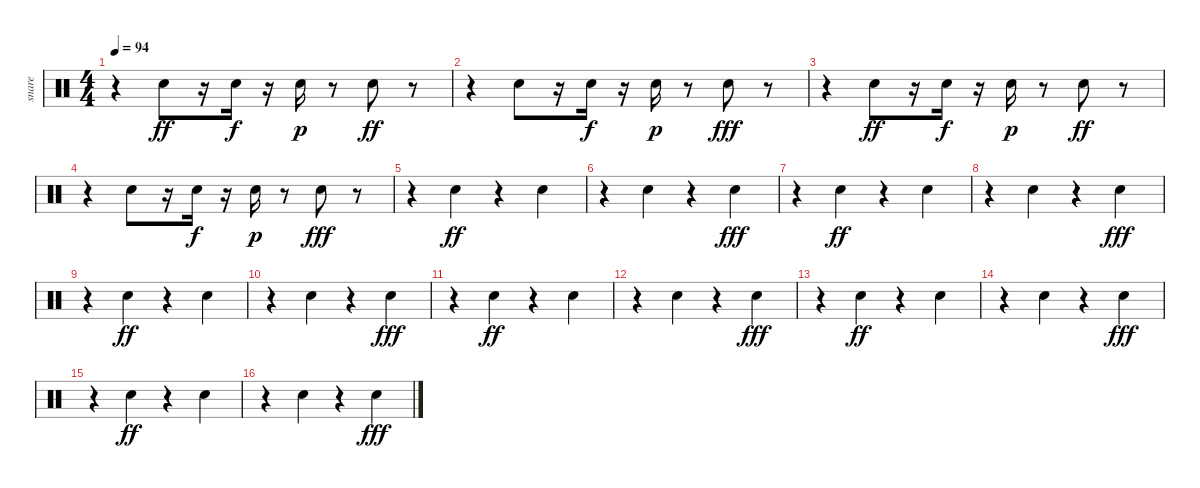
\track ("snare" "snare") {instrument percussion}
\staff {score}
\articulation defaults
\ts (4 4)
\tempo 94
\clef neutral
\ks c
r.4{dy ff} "Electric Snare (hit)".8 r.16 "Electric Snare (hit)".16{dy f} r.16 "Electric Snare (hit)".16{dy p} r.8 "Electric Snare (hit)".8{dy ff} r.8 |
r.4 "Electric Snare (hit)".8 r.16 "Electric Snare (hit)".16{dy f} r.16 "Electric Snare (hit)".16{dy p} r.8 "Electric Snare (hit)".8{dy fff} r.8 |
r.4 "Electric Snare (hit)".8{dy ff} r.16 "Electric Snare (hit)".16{dy f} r.16 "Electric Snare (hit)".16{dy p} r.8 "Electric Snare (hit)".8{dy ff} r.8 |
r.4 "Electric Snare (hit)".8 r.16 "Electric Snare (hit)".16{dy f} r.16 "Electric Snare (hit)".16{dy p} r.8 "Electric Snare (hit)".8{dy fff} r.8 |
r.4 "Electric Snare (hit)".4{dy ff} r.4 "Electric Snare (hit)".4 |
r.4 "Electric Snare (hit)".4 r.4 "Electric Snare (hit)".4{dy fff} |
r.4 "Electric Snare (hit)".4{dy ff} r.4 "Electric Snare (hit)".4 |
r.4 "Electric Snare (hit)".4 r.4 "Electric Snare (hit)".4{dy fff} |
r.4 "Electric Snare (hit)".4{dy ff} r.4 "Electric Snare (hit)".4 |
r.4 "Electric Snare (hit)".4 r.4 "Electric Snare (hit)".4{dy fff} |
r.4 "Electric Snare (hit)".4{dy ff} r.4 "Electric Snare (hit)".4 |
r.4 "Electric Snare (hit)".4 r.4 "Electric Snare (hit)".4{dy fff} |
r.4 "Electric Snare (hit)".4{dy ff} r.4 "Electric Snare (hit)".4 |
r.4 "Electric Snare (hit)".4 r.4 "Electric Snare (hit)".4{dy fff} |
r.4 "Electric Snare (hit)".4{dy ff} r.4 "Electric Snare (hit)".4 |
r.4 "Electric Snare (hit)".4 r.4 "Electric Snare (hit)".4{dy fff}
